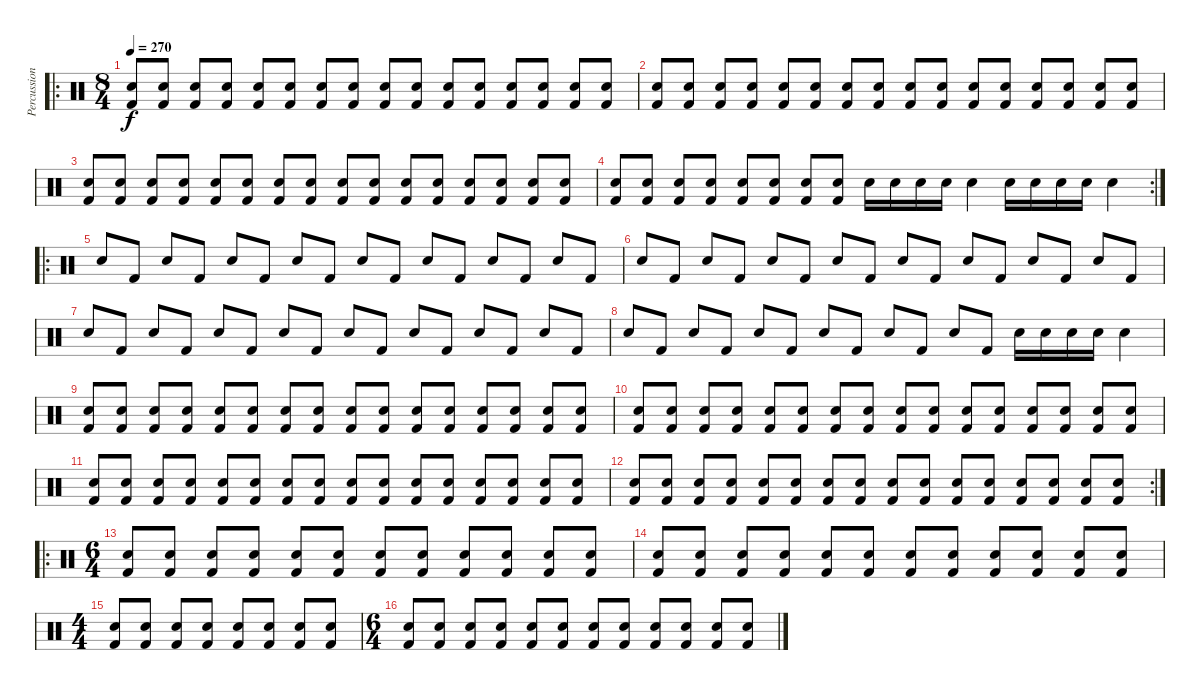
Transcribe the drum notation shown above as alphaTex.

\track ("Percussion" "Percussion") {instrument percussion}
\staff {score}
\articulation defaults
\ro
\ts (8 4)
\tempo 270
\clef neutral
\ks c
("Electric Snare (hit)" "Kick (hit) 2").8{dy f} ("Electric Snare (hit)" "Kick (hit) 2").8 ("Electric Snare (hit)" "Kick (hit) 2").8 ("Electric Snare (hit)" "Kick (hit) 2").8 ("Electric Snare (hit)" "Kick (hit) 2").8 ("Electric Snare (hit)" "Kick (hit) 2").8 ("Electric Snare (hit)" "Kick (hit) 2").8 ("Electric Snare (hit)" "Kick (hit) 2").8 ("Electric Snare (hit)" "Kick (hit) 2").8 ("Electric Snare (hit)" "Kick (hit) 2").8 ("Electric Snare (hit)" "Kick (hit) 2").8 ("Electric Snare (hit)" "Kick (hit) 2").8 ("Electric Snare (hit)" "Kick (hit) 2").8 ("Electric Snare (hit)" "Kick (hit) 2").8 ("Electric Snare (hit)" "Kick (hit) 2").8 ("Electric Snare (hit)" "Kick (hit) 2").8 |
("Electric Snare (hit)" "Kick (hit) 2").8 ("Electric Snare (hit)" "Kick (hit) 2").8 ("Electric Snare (hit)" "Kick (hit) 2").8 ("Electric Snare (hit)" "Kick (hit) 2").8 ("Electric Snare (hit)" "Kick (hit) 2").8 ("Electric Snare (hit)" "Kick (hit) 2").8 ("Electric Snare (hit)" "Kick (hit) 2").8 ("Electric Snare (hit)" "Kick (hit) 2").8 ("Electric Snare (hit)" "Kick (hit) 2").8 ("Electric Snare (hit)" "Kick (hit) 2").8 ("Electric Snare (hit)" "Kick (hit) 2").8 ("Electric Snare (hit)" "Kick (hit) 2").8 ("Electric Snare (hit)" "Kick (hit) 2").8 ("Electric Snare (hit)" "Kick (hit) 2").8 ("Electric Snare (hit)" "Kick (hit) 2").8 ("Electric Snare (hit)" "Kick (hit) 2").8 |
("Electric Snare (hit)" "Kick (hit) 2").8 ("Electric Snare (hit)" "Kick (hit) 2").8 ("Electric Snare (hit)" "Kick (hit) 2").8 ("Electric Snare (hit)" "Kick (hit) 2").8 ("Electric Snare (hit)" "Kick (hit) 2").8 ("Electric Snare (hit)" "Kick (hit) 2").8 ("Electric Snare (hit)" "Kick (hit) 2").8 ("Electric Snare (hit)" "Kick (hit) 2").8 ("Electric Snare (hit)" "Kick (hit) 2").8 ("Electric Snare (hit)" "Kick (hit) 2").8 ("Electric Snare (hit)" "Kick (hit) 2").8 ("Electric Snare (hit)" "Kick (hit) 2").8 ("Electric Snare (hit)" "Kick (hit) 2").8 ("Electric Snare (hit)" "Kick (hit) 2").8 ("Electric Snare (hit)" "Kick (hit) 2").8 ("Electric Snare (hit)" "Kick (hit) 2").8 |
\rc 2
("Electric Snare (hit)" "Kick (hit) 2").8 ("Electric Snare (hit)" "Kick (hit) 2").8 ("Electric Snare (hit)" "Kick (hit) 2").8 ("Electric Snare (hit)" "Kick (hit) 2").8 ("Electric Snare (hit)" "Kick (hit) 2").8 ("Electric Snare (hit)" "Kick (hit) 2").8 ("Electric Snare (hit)" "Kick (hit) 2").8 ("Electric Snare (hit)" "Kick (hit) 2").8 "Electric Snare (hit)".16 "Electric Snare (hit)".16 "Electric Snare (hit)".16 "Electric Snare (hit)".16 "Electric Snare (hit)".4 "Electric Snare (hit)".16 "Electric Snare (hit)".16 "Electric Snare (hit)".16 "Electric Snare (hit)".16 "Electric Snare (hit)".4 |
\ro "Electric Snare (hit)".8 "Kick (hit) 2".8 "Electric Snare (hit)".8 "Kick (hit) 2".8 "Electric Snare (hit)".8 "Kick (hit) 2".8 "Electric Snare (hit)".8 "Kick (hit) 2".8 "Electric Snare (hit)".8 "Kick (hit) 2".8 "Electric Snare (hit)".8 "Kick (hit) 2".8 "Electric Snare (hit)".8 "Kick (hit) 2".8 "Electric Snare (hit)".8 "Kick (hit) 2".8
|
"Electric Snare (hit)".8 "Kick (hit) 2".8 "Electric Snare (hit)".8 "Kick (hit) 2".8 "Electric Snare (hit)".8 "Kick (hit) 2".8 "Electric Snare (hit)".8 "Kick (hit) 2".8 "Electric Snare (hit)".8 "Kick (hit) 2".8 "Electric Snare (hit)".8 "Kick (hit) 2".8 "Electric Snare (hit)".8 "Kick (hit) 2".8 "Electric Snare (hit)".8 "Kick (hit) 2".8 |
"Electric Snare (hit)".8 "Kick (hit) 2".8 "Electric Snare (hit)".8 "Kick (hit) 2".8 "Electric Snare (hit)".8 "Kick (hit) 2".8 "Electric Snare (hit)".8 "Kick (hit) 2".8 "Electric Snare (hit)".8 "Kick (hit) 2".8 "Electric Snare (hit)".8 "Kick (hit) 2".8 "Electric Snare (hit)".8 "Kick (hit) 2".8 "Electric Snare (hit)".8 "Kick (hit) 2".8 |
"Electric Snare (hit)".8 "Kick (hit) 2".8 "Electric Snare (hit)".8 "Kick (hit) 2".8 "Electric Snare (hit)".8 "Kick (hit) 2".8 "Electric Snare (hit)".8 "Kick (hit) 2".8 "Electric Snare (hit)".8 "Kick (hit) 2".8 "Electric Snare (hit)".8 "Kick (hit) 2".8 "Electric Snare (hit)".16 "Electric Snare (hit)".16 "Electric Snare (hit)".16 "Electric Snare (hit)".16 "Electric Snare (hit)".4 |
("Electric Snare (hit)" "Kick (hit) 2").8 ("Electric Snare (hit)" "Kick (hit) 2").8 ("Electric Snare (hit)" "Kick (hit) 2").8 ("Electric Snare (hit)" "Kick (hit) 2").8 ("Electric Snare (hit)" "Kick (hit) 2").8 ("Electric Snare (hit)" "Kick (hit) 2").8 ("Electric Snare (hit)" "Kick (hit) 2").8 ("Electric Snare (hit)" "Kick (hit) 2").8 ("Electric Snare (hit)" "Kick (hit) 2").8 ("Electric Snare (hit)" "Kick (hit) 2").8 ("Electric Snare (hit)" "Kick (hit) 2").8 ("Electric Snare (hit)" "Kick (hit) 2").8 ("Electric Snare (hit)" "Kick (hit) 2").8 ("Electric Snare (hit)" "Kick (hit) 2").8 ("Electric Snare (hit)" "Kick (hit) 2").8 ("Electric Snare (hit)" "Kick (hit) 2").8 |
("Electric Snare (hit)" "Kick (hit) 2").8 ("Electric Snare (hit)" "Kick (hit) 2").8 ("Electric Snare (hit)" "Kick (hit) 2").8 ("Electric Snare (hit)" "Kick (hit) 2").8 ("Electric Snare (hit)" "Kick (hit) 2").8 ("Electric Snare (hit)" "Kick (hit) 2").8 ("Electric Snare (hit)" "Kick (hit) 2").8 ("Electric Snare (hit)" "Kick (hit) 2").8 ("Electric Snare (hit)" "Kick (hit) 2").8 ("Electric Snare (hit)" "Kick (hit) 2").8 ("Electric Snare (hit)" "Kick (hit) 2").8 ("Electric Snare (hit)" "Kick (hit) 2").8 ("Electric Snare (hit)" "Kick (hit) 2").8 ("Electric Snare (hit)" "Kick (hit) 2").8 ("Electric Snare (hit)" "Kick (hit) 2").8 ("Electric Snare (hit)" "Kick (hit) 2").8 |
("Electric Snare (hit)" "Kick (hit) 2").8 ("Electric Snare (hit)" "Kick (hit) 2").8 ("Electric Snare (hit)" "Kick (hit) 2").8 ("Electric Snare (hit)" "Kick (hit) 2").8 ("Electric Snare (hit)" "Kick (hit) 2").8 ("Electric Snare (hit)" "Kick (hit) 2").8 ("Electric Snare (hit)" "Kick (hit) 2").8 ("Electric Snare (hit)" "Kick (hit) 2").8 ("Electric Snare (hit)" "Kick (hit) 2").8 ("Electric Snare (hit)" "Kick (hit) 2").8 ("Electric Snare (hit)" "Kick (hit) 2").8 ("Electric Snare (hit)" "Kick (hit) 2").8 ("Electric Snare (hit)" "Kick (hit) 2").8 ("Electric Snare (hit)" "Kick (hit) 2").8 ("Electric Snare (hit)" "Kick (hit) 2").8 ("Electric Snare (hit)" "Kick (hit) 2").8 |
\rc 2
("Electric Snare (hit)" "Kick (hit) 2").8 ("Electric Snare (hit)" "Kick (hit) 2").8 ("Electric Snare (hit)" "Kick (hit) 2").8 ("Electric Snare (hit)" "Kick (hit) 2").8 ("Electric Snare (hit)" "Kick (hit) 2").8 ("Electric Snare (hit)" "Kick (hit) 2").8 ("Electric Snare (hit)" "Kick (hit) 2").8 ("Electric Snare (hit)" "Kick (hit) 2").8 ("Electric Snare (hit)" "Kick (hit) 2").8 ("Electric Snare (hit)" "Kick (hit) 2").8 ("Electric Snare (hit)" "Kick (hit) 2").8 ("Electric Snare (hit)" "Kick (hit) 2").8 ("Electric Snare (hit)" "Kick (hit) 2").8 ("Electric Snare (hit)" "Kick (hit) 2").8 ("Electric Snare (hit)" "Kick (hit) 2").8 ("Electric Snare (hit)" "Kick (hit) 2").8 |
\ro
\ts (6 4)
("Electric Snare (hit)" "Kick (hit) 2").8 ("Electric Snare (hit)" "Kick (hit) 2").8 ("Electric Snare (hit)" "Kick (hit) 2").8 ("Electric Snare (hit)" "Kick (hit) 2").8 ("Electric Snare (hit)" "Kick (hit) 2").8 ("Electric Snare (hit)" "Kick (hit) 2").8 ("Electric Snare (hit)" "Kick (hit) 2").8 ("Electric Snare (hit)" "Kick (hit) 2").8 ("Electric Snare (hit)" "Kick (hit) 2").8 ("Electric Snare (hit)" "Kick (hit) 2").8 ("Electric Snare (hit)" "Kick (hit) 2").8 ("Electric Snare (hit)" "Kick (hit) 2").8 |
("Electric Snare (hit)" "Kick (hit) 2").8 ("Electric Snare (hit)" "Kick (hit) 2").8 ("Electric Snare (hit)" "Kick (hit) 2").8 ("Electric Snare (hit)" "Kick (hit) 2").8 ("Electric Snare (hit)" "Kick (hit) 2").8 ("Electric Snare (hit)" "Kick (hit) 2").8 ("Electric Snare (hit)" "Kick (hit) 2").8 ("Electric Snare (hit)" "Kick (hit) 2").8 ("Electric Snare (hit)" "Kick (hit) 2").8 ("Electric Snare (hit)" "Kick (hit) 2").8 ("Electric Snare (hit)" "Kick (hit) 2").8 ("Electric Snare (hit)" "Kick (hit) 2").8 |
\ts (4 4)
("Electric Snare (hit)" "Kick (hit) 2").8 ("Electric Snare (hit)" "Kick (hit) 2").8 ("Electric Snare (hit)" "Kick (hit) 2").8 ("Electric Snare (hit)" "Kick (hit) 2").8 ("Electric Snare (hit)" "Kick (hit) 2").8 ("Electric Snare (hit)" "Kick (hit) 2").8 ("Electric Snare (hit)" "Kick (hit) 2").8 ("Electric Snare (hit)" "Kick (hit) 2").8 |
\ts (6 4)
("Electric Snare (hit)" "Kick (hit) 2").8 ("Electric Snare (hit)" "Kick (hit) 2").8 ("Electric Snare (hit)" "Kick (hit) 2").8 ("Electric Snare (hit)" "Kick (hit) 2").8 ("Electric Snare (hit)" "Kick (hit) 2").8 ("Electric Snare (hit)" "Kick (hit) 2").8 ("Electric Snare (hit)" "Kick (hit) 2").8 ("Electric Snare (hit)" "Kick (hit) 2").8 ("Electric Snare (hit)" "Kick (hit) 2").8 ("Electric Snare (hit)" "Kick (hit) 2").8 ("Electric Snare (hit)" "Kick (hit) 2").8 ("Electric Snare (hit)" "Kick (hit) 2").8
